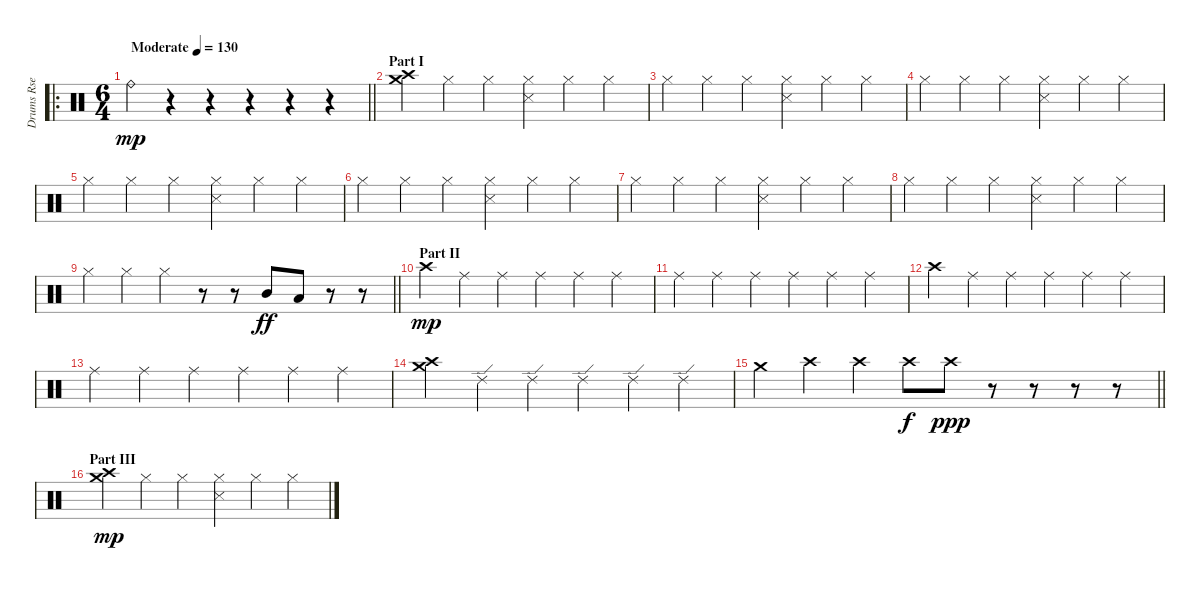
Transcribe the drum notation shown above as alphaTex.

\track ("Drums Rse" "Drums Rse") {instrument percussion}
\staff {score}
\articulation defaults
\ro
\ts (6 4)
\tempo (130 "Moderate")
\clef neutral
\barLineRight lightlight
\ks c "Ride (bell)".4{dy mp}
r.4 r.4 r.4 r.4 r.4 |
\section ("" "Part I")
("Crash medium (hit)" "Crash high (hit)").4 "Hi-Hat (closed)".4 "Hi-Hat (closed)".4 ("Hi-Hat (closed)" "Metronome (hit)").4 "Hi-Hat (closed)".4 "Hi-Hat (closed)".4 |
"Hi-Hat (closed)".4 "Hi-Hat (closed)".4 "Hi-Hat (closed)".4 ("Hi-Hat (closed)" "Metronome (hit)").4 "Hi-Hat (closed)".4 "Hi-Hat (closed)".4 |
"Hi-Hat (closed)".4 "Hi-Hat (closed)".4 "Hi-Hat (closed)".4 ("Hi-Hat (closed)" "Metronome (hit)").4 "Hi-Hat (closed)".4 "Hi-Hat (closed)".4 |
"Hi-Hat (closed)".4 "Hi-Hat (closed)".4 "Hi-Hat (closed)".4 ("Hi-Hat (closed)" "Metronome (hit)").4 "Hi-Hat (closed)".4 "Hi-Hat (closed)".4 |
"Hi-Hat (closed)".4 "Hi-Hat (closed)".4 "Hi-Hat (closed)".4 ("Hi-Hat (closed)" "Metronome (hit)").4 "Hi-Hat (closed)".4 "Hi-Hat (closed)".4 |
"Hi-Hat (closed)".4 "Hi-Hat (closed)".4 "Hi-Hat (closed)".4 ("Hi-Hat (closed)" "Metronome (hit)").4 "Hi-Hat (closed)".4 "Hi-Hat (closed)".4 |
"Hi-Hat (closed)".4 "Hi-Hat (closed)".4 "Hi-Hat (closed)".4 ("Hi-Hat (closed)" "Metronome (hit)").4 "Hi-Hat (closed)".4 "Hi-Hat (closed)".4 |
\barLineRight lightlight "Hi-Hat (closed)".4 "Hi-Hat (closed)".4 "Hi-Hat (closed)".4
r.8 r.8 "Mid Tom (hit)".8{dy ff} "Low Tom (hit)".8 r.8 r.8 |
\section ("" "Part II")
"Crash high (hit)".4{dy mp} "Ride (middle)".4 "Ride (middle)".4 "Ride (middle)".4 "Ride (middle)".4 "Ride (middle)".4 |
"Ride (middle)".4 "Ride (middle)".4 "Ride (middle)".4 "Ride (middle)".4 "Ride (middle)".4 "Ride (middle)".4 |
"Crash high (hit)".4 "Ride (middle)".4 "Ride (middle)".4 "Ride (middle)".4 "Ride (middle)".4 "Ride (middle)".4 |
"Ride (middle)".4 "Ride (middle)".4 "Ride (middle)".4 "Ride (middle)".4 "Ride (middle)".4 "Ride (middle)".4 |
("Crash medium (hit)" "Crash high (hit)").4 "Ride (edge) 2".4 "Ride (edge) 2".4 "Ride (edge) 2".4 "Ride (edge) 2".4 "Ride (edge) 2".4 |
\barLineRight lightlight "Crash medium (hit)".4 "Crash high (hit)".4 "Crash high (hit)".4 "Crash high (hit)".8{dy f} "Crash high (hit)".8{dy ppp}
r.8 r.8 r.8 r.8 |
\section ("" "Part III")
("Crash medium (hit)" "Crash high (hit)").4{dy mp} "Hi-Hat (closed)".4 "Hi-Hat (closed)".4 ("Hi-Hat (closed)" "Metronome (hit)").4 "Hi-Hat (closed)".4 "Hi-Hat (closed)".4
